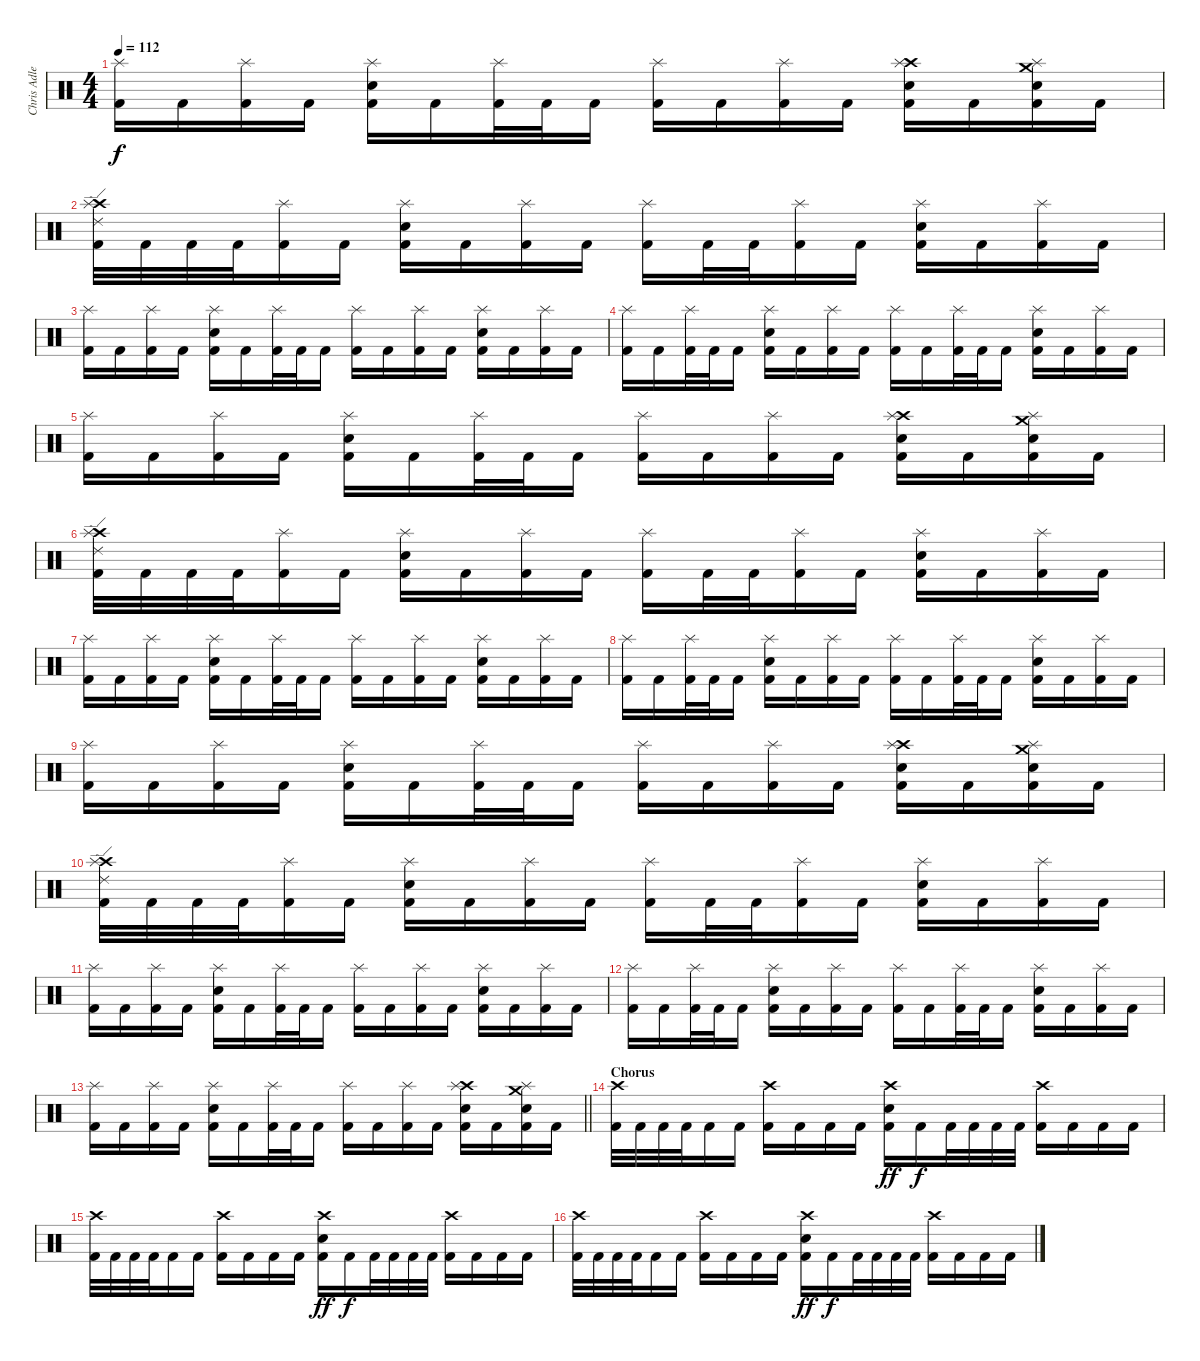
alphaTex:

\track ("Chris Adler" "Chris Adle") {instrument percussion}
\staff {score}
\articulation defaults
\ts (4 4)
\tempo 112
\clef neutral
\ks c
("Kick (hit) 2" "Splash (hit)").16{dy f} "Kick (hit) 2".16 ("Kick (hit) 2" "Splash (hit)").16 "Kick (hit) 2".16 ("Kick (hit) 2" "Electric Snare (hit)" "Splash (hit)").16 "Kick (hit) 2".16 ("Kick (hit) 2" "Splash (hit)").32 "Kick (hit) 2".32 "Kick (hit) 2".16 ("Kick (hit) 2" "Splash (hit)").16 "Kick (hit) 2".16 ("Kick (hit) 2" "Splash (hit)").16 "Kick (hit) 2".16 ("Kick (hit) 2" "Crash high (hit)" "Electric Snare (hit)" "Splash (hit)").16 "Kick (hit) 2".16 ("Kick (hit) 2" "Crash medium (hit)" "Electric Snare (hit)" "Splash (hit)").16 "Kick (hit) 2".16 |
("Kick (hit) 2" "Crash high (hit)" "Ride (edge) 2" "Splash (hit)").32 "Kick (hit) 2".32 "Kick (hit) 2".32 "Kick (hit) 2".32 ("Kick (hit) 2" "Splash (hit)").16 "Kick (hit) 2".16 ("Kick (hit) 2" "Electric Snare (hit)" "Splash (hit)").16 "Kick (hit) 2".16 ("Kick (hit) 2" "Splash (hit)").16 "Kick (hit) 2".16 ("Kick (hit) 2" "Splash (hit)").16 "Kick (hit) 2".32 "Kick (hit) 2".32 ("Kick (hit) 2" "Splash (hit)").16 "Kick (hit) 2".16 ("Kick (hit) 2" "Electric Snare (hit)" "Splash (hit)").16 "Kick (hit) 2".16 ("Kick (hit) 2" "Splash (hit)").16 "Kick (hit) 2".16 |
("Kick (hit) 2" "Splash (hit)").16 "Kick (hit) 2".16 ("Kick (hit) 2" "Splash (hit)").16 "Kick (hit) 2".16 ("Kick (hit) 2" "Electric Snare (hit)" "Splash (hit)").16 "Kick (hit) 2".16 ("Kick (hit) 2" "Splash (hit)").32 "Kick (hit) 2".32 "Kick (hit) 2".16 ("Kick (hit) 2" "Splash (hit)").16 "Kick (hit) 2".16 ("Kick (hit) 2" "Splash (hit)").16 "Kick (hit) 2".16 ("Kick (hit) 2" "Electric Snare (hit)" "Splash (hit)").16 "Kick (hit) 2".16 ("Kick (hit) 2" "Splash (hit)").16 "Kick (hit) 2".16 |
("Kick (hit) 2" "Splash (hit)").16 "Kick (hit) 2".16 ("Kick (hit) 2" "Splash (hit)").32 "Kick (hit) 2".32 "Kick (hit) 2".16 ("Kick (hit) 2" "Electric Snare (hit)" "Splash (hit)").16 "Kick (hit) 2".16 ("Kick (hit) 2" "Splash (hit)").16 "Kick (hit) 2".16 ("Kick (hit) 2" "Splash (hit)").16 "Kick (hit) 2".16 ("Kick (hit) 2" "Splash (hit)").32 "Kick (hit) 2".32 "Kick (hit) 2".16 ("Kick (hit) 2" "Electric Snare (hit)" "Splash (hit)").16 "Kick (hit) 2".16 ("Kick (hit) 2" "Splash (hit)").16 "Kick (hit) 2".16 |
("Kick (hit) 2" "Splash (hit)").16 "Kick (hit) 2".16 ("Kick (hit) 2" "Splash (hit)").16 "Kick (hit) 2".16 ("Kick (hit) 2" "Electric Snare (hit)" "Splash (hit)").16 "Kick (hit) 2".16 ("Kick (hit) 2" "Splash (hit)").32 "Kick (hit) 2".32 "Kick (hit) 2".16 ("Kick (hit) 2" "Splash (hit)").16 "Kick (hit) 2".16 ("Kick (hit) 2" "Splash (hit)").16 "Kick (hit) 2".16 ("Kick (hit) 2" "Crash high (hit)" "Electric Snare (hit)" "Splash (hit)").16 "Kick (hit) 2".16 ("Kick (hit) 2" "Crash medium (hit)" "Electric Snare (hit)" "Splash (hit)").16 "Kick (hit) 2".16 |
("Kick (hit) 2" "Crash high (hit)" "Ride (edge) 2" "Splash (hit)").32 "Kick (hit) 2".32 "Kick (hit) 2".32 "Kick (hit) 2".32 ("Kick (hit) 2" "Splash (hit)").16 "Kick (hit) 2".16 ("Kick (hit) 2" "Electric Snare (hit)" "Splash (hit)").16 "Kick (hit) 2".16 ("Kick (hit) 2" "Splash (hit)").16 "Kick (hit) 2".16 ("Kick (hit) 2" "Splash (hit)").16 "Kick (hit) 2".32 "Kick (hit) 2".32 ("Kick (hit) 2" "Splash (hit)").16 "Kick (hit) 2".16 ("Kick (hit) 2" "Electric Snare (hit)" "Splash (hit)").16 "Kick (hit) 2".16 ("Kick (hit) 2" "Splash (hit)").16 "Kick (hit) 2".16 |
("Kick (hit) 2" "Splash (hit)").16 "Kick (hit) 2".16 ("Kick (hit) 2" "Splash (hit)").16 "Kick (hit) 2".16 ("Kick (hit) 2" "Electric Snare (hit)" "Splash (hit)").16 "Kick (hit) 2".16 ("Kick (hit) 2" "Splash (hit)").32 "Kick (hit) 2".32 "Kick (hit) 2".16 ("Kick (hit) 2" "Splash (hit)").16 "Kick (hit) 2".16 ("Kick (hit) 2" "Splash (hit)").16 "Kick (hit) 2".16 ("Kick (hit) 2" "Electric Snare (hit)" "Splash (hit)").16 "Kick (hit) 2".16 ("Kick (hit) 2" "Splash (hit)").16 "Kick (hit) 2".16 |
("Kick (hit) 2" "Splash (hit)").16 "Kick (hit) 2".16 ("Kick (hit) 2" "Splash (hit)").32 "Kick (hit) 2".32 "Kick (hit) 2".16 ("Kick (hit) 2" "Electric Snare (hit)" "Splash (hit)").16 "Kick (hit) 2".16 ("Kick (hit) 2" "Splash (hit)").16 "Kick (hit) 2".16 ("Kick (hit) 2" "Splash (hit)").16 "Kick (hit) 2".16 ("Kick (hit) 2" "Splash (hit)").32 "Kick (hit) 2".32 "Kick (hit) 2".16 ("Kick (hit) 2" "Electric Snare (hit)" "Splash (hit)").16 "Kick (hit) 2".16 ("Kick (hit) 2" "Splash (hit)").16 "Kick (hit) 2".16 |
("Kick (hit) 2" "Splash (hit)").16 "Kick (hit) 2".16 ("Kick (hit) 2" "Splash (hit)").16 "Kick (hit) 2".16 ("Kick (hit) 2" "Electric Snare (hit)" "Splash (hit)").16 "Kick (hit) 2".16 ("Kick (hit) 2" "Splash (hit)").32 "Kick (hit) 2".32 "Kick (hit) 2".16 ("Kick (hit) 2" "Splash (hit)").16 "Kick (hit) 2".16 ("Kick (hit) 2" "Splash (hit)").16 "Kick (hit) 2".16 ("Kick (hit) 2" "Crash high (hit)" "Electric Snare (hit)" "Splash (hit)").16 "Kick (hit) 2".16 ("Kick (hit) 2" "Crash medium (hit)" "Electric Snare (hit)" "Splash (hit)").16 "Kick (hit) 2".16 |
("Kick (hit) 2" "Crash high (hit)" "Ride (edge) 2" "Splash (hit)").32 "Kick (hit) 2".32 "Kick (hit) 2".32 "Kick (hit) 2".32 ("Kick (hit) 2" "Splash (hit)").16 "Kick (hit) 2".16 ("Kick (hit) 2" "Electric Snare (hit)" "Splash (hit)").16 "Kick (hit) 2".16 ("Kick (hit) 2" "Splash (hit)").16 "Kick (hit) 2".16 ("Kick (hit) 2" "Splash (hit)").16 "Kick (hit) 2".32 "Kick (hit) 2".32 ("Kick (hit) 2" "Splash (hit)").16 "Kick (hit) 2".16 ("Kick (hit) 2" "Electric Snare (hit)" "Splash (hit)").16 "Kick (hit) 2".16 ("Kick (hit) 2" "Splash (hit)").16 "Kick (hit) 2".16 |
("Kick (hit) 2" "Splash (hit)").16 "Kick (hit) 2".16 ("Kick (hit) 2" "Splash (hit)").16 "Kick (hit) 2".16 ("Kick (hit) 2" "Electric Snare (hit)" "Splash (hit)").16 "Kick (hit) 2".16 ("Kick (hit) 2" "Splash (hit)").32 "Kick (hit) 2".32 "Kick (hit) 2".16 ("Kick (hit) 2" "Splash (hit)").16 "Kick (hit) 2".16 ("Kick (hit) 2" "Splash (hit)").16 "Kick (hit) 2".16 ("Kick (hit) 2" "Electric Snare (hit)" "Splash (hit)").16 "Kick (hit) 2".16 ("Kick (hit) 2" "Splash (hit)").16 "Kick (hit) 2".16 |
("Kick (hit) 2" "Splash (hit)").16 "Kick (hit) 2".16 ("Kick (hit) 2" "Splash (hit)").32 "Kick (hit) 2".32 "Kick (hit) 2".16 ("Kick (hit) 2" "Electric Snare (hit)" "Splash (hit)").16 "Kick (hit) 2".16 ("Kick (hit) 2" "Splash (hit)").16 "Kick (hit) 2".16 ("Kick (hit) 2" "Splash (hit)").16 "Kick (hit) 2".16 ("Kick (hit) 2" "Splash (hit)").32 "Kick (hit) 2".32 "Kick (hit) 2".16 ("Kick (hit) 2" "Electric Snare (hit)" "Splash (hit)").16 "Kick (hit) 2".16 ("Kick (hit) 2" "Splash (hit)").16 "Kick (hit) 2".16 |
\barLineRight lightlight
("Kick (hit) 2" "Splash (hit)").16 "Kick (hit) 2".16 ("Kick (hit) 2" "Splash (hit)").16 "Kick (hit) 2".16 ("Kick (hit) 2" "Electric Snare (hit)" "Splash (hit)").16 "Kick (hit) 2".16 ("Kick (hit) 2" "Splash (hit)").32 "Kick (hit) 2".32 "Kick (hit) 2".16 ("Kick (hit) 2" "Splash (hit)").16 "Kick (hit) 2".16 ("Kick (hit) 2" "Splash (hit)").16 "Kick (hit) 2".16 ("Kick (hit) 2" "Crash high (hit)" "Electric Snare (hit)" "Splash (hit)").16 "Kick (hit) 2".16 ("Kick (hit) 2" "Crash medium (hit)" "Electric Snare (hit)" "Splash (hit)").16 "Kick (hit) 2".16 |
\section ("" "Chorus")
("Kick (hit) 2" "Crash high (hit)").32 "Kick (hit) 2".32 "Kick (hit) 2".32 "Kick (hit) 2".32 "Kick (hit) 2".16 "Kick (hit) 2".16 ("Kick (hit) 2" "Crash high (hit)").16 "Kick (hit) 2".16 "Kick (hit) 2".16 "Kick (hit) 2".16 ("Kick (hit) 2" "Electric Snare (hit)" "Crash high (hit)").16{dy ff} "Kick (hit) 2".16{dy f} "Kick (hit) 2".32 "Kick (hit) 2".32 "Kick (hit) 2".32 "Kick (hit) 2".32 ("Kick (hit) 2" "Crash high (hit)").16 "Kick (hit) 2".16 "Kick (hit) 2".16 "Kick (hit) 2".16 |
("Kick (hit) 2" "Crash high (hit)").32 "Kick (hit) 2".32 "Kick (hit) 2".32 "Kick (hit) 2".32 "Kick (hit) 2".16 "Kick (hit) 2".16 ("Kick (hit) 2" "Crash high (hit)").16 "Kick (hit) 2".16 "Kick (hit) 2".16 "Kick (hit) 2".16 ("Kick (hit) 2" "Electric Snare (hit)" "Crash high (hit)").16{dy ff} "Kick (hit) 2".16{dy f} "Kick (hit) 2".32 "Kick (hit) 2".32 "Kick (hit) 2".32 "Kick (hit) 2".32 ("Kick (hit) 2" "Crash high (hit)").16 "Kick (hit) 2".16 "Kick (hit) 2".16 "Kick (hit) 2".16 |
("Kick (hit) 2" "Crash high (hit)").32 "Kick (hit) 2".32 "Kick (hit) 2".32 "Kick (hit) 2".32 "Kick (hit) 2".16 "Kick (hit) 2".16 ("Kick (hit) 2" "Crash high (hit)").16 "Kick (hit) 2".16 "Kick (hit) 2".16 "Kick (hit) 2".16 ("Kick (hit) 2" "Electric Snare (hit)" "Crash high (hit)").16{dy ff} "Kick (hit) 2".16{dy f} "Kick (hit) 2".32 "Kick (hit) 2".32 "Kick (hit) 2".32 "Kick (hit) 2".32 ("Kick (hit) 2" "Crash high (hit)").16 "Kick (hit) 2".16 "Kick (hit) 2".16 "Kick (hit) 2".16
